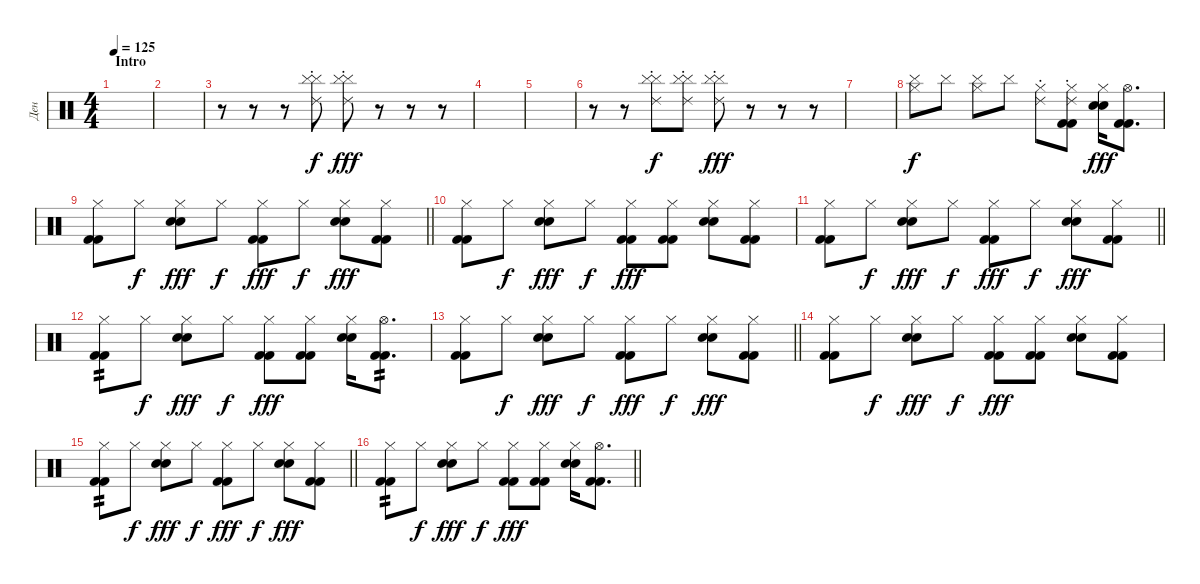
\track ("Ден" "Ден") {instrument percussion}
\staff {score}
\articulation defaults
\ts (4 4)
\section ("" "Intro")
\tempo 125
\clef neutral
\ks c
|
|
r.8 r.8 r.8 ("Cymbal (hit)" "Ride (choke) 2" "Cymbal (hit)").8 ("Cymbal (hit)" "Ride (choke) 2" "Cymbal (hit)").8{dy fff} r.8 r.8 r.8 |
|
|
r.8 r.8 ("Cymbal (hit)" "Ride (choke) 2" "Cymbal (hit)").8{dy f} ("Cymbal (hit)" "Ride (choke) 2" "Cymbal (hit)").8 ("Cymbal (hit)" "Ride (choke) 2" "Cymbal (hit)").8{dy fff} r.8 r.8 r.8 |
|
("Hi-Hat (closed)" "Cymbal (hit)").8{dy f} "Cymbal (hit)".8 ("Hi-Hat (closed)" "Cymbal (hit)").8 "Cymbal (hit)".8 ("Hi-Hat (closed)" "Ride (choke) 2").8 ("Hi-Hat (closed)" "Ride (choke) 2" "Kick (hit) 2" "Kick (hit) 2").8 ("Hi-Hat (closed)" "Electric Snare (hit)" "Electric Snare (hit)").16{dy fff} ("Hi-Hat (open)" "Kick (hit) 2" "Kick (hit) 2").8{d} |
\barLineRight lightlight
("Hi-Hat (closed)" "Kick (hit) 2" "Kick (hit) 2").8 "Hi-Hat (closed)".8{dy f} ("Hi-Hat (closed)" "Electric Snare (hit)" "Electric Snare (hit)").8{dy fff} "Hi-Hat (closed)".8{dy f} ("Hi-Hat (closed)" "Kick (hit) 2" "Kick (hit) 2").8{dy fff} "Hi-Hat (closed)".8{dy f} ("Hi-Hat (closed)" "Electric Snare (hit)" "Electric Snare (hit)").8{dy fff} ("Hi-Hat (closed)" "Kick (hit) 2" "Kick (hit) 2").8 |
("Hi-Hat (closed)" "Kick (hit) 2" "Kick (hit) 2").8 "Hi-Hat (closed)".8{dy f} ("Hi-Hat (closed)" "Electric Snare (hit)" "Electric Snare (hit)").8{dy fff} "Hi-Hat (closed)".8{dy f} ("Hi-Hat (closed)" "Kick (hit) 2" "Kick (hit) 2").8{dy fff} ("Hi-Hat (closed)" "Kick (hit) 2" "Kick (hit) 2").8 ("Hi-Hat (closed)" "Electric Snare (hit)" "Electric Snare (hit)").8 ("Hi-Hat (closed)" "Kick (hit) 2" "Kick (hit) 2").8 |
\barLineRight lightlight
("Hi-Hat (closed)" "Kick (hit) 2" "Kick (hit) 2").8 "Hi-Hat (closed)".8{dy f} ("Hi-Hat (closed)" "Electric Snare (hit)" "Electric Snare (hit)").8{dy fff} "Hi-Hat (closed)".8{dy f} ("Hi-Hat (closed)" "Kick (hit) 2" "Kick (hit) 2").8{dy fff} "Hi-Hat (closed)".8{dy f} ("Hi-Hat (closed)" "Electric Snare (hit)" "Electric Snare (hit)").8{dy fff} ("Hi-Hat (closed)" "Kick (hit) 2" "Kick (hit) 2").8 |
("Hi-Hat (closed)" "Kick (hit) 2" "Kick (hit) 2").8{tp 2} "Hi-Hat (closed)".8{dy f} ("Hi-Hat (closed)" "Electric Snare (hit)" "Electric Snare (hit)").8{dy fff} "Hi-Hat (closed)".8{dy f} ("Hi-Hat (closed)" "Kick (hit) 2" "Kick (hit) 2").8{dy fff} ("Hi-Hat (closed)" "Kick (hit) 2" "Kick (hit) 2").8 ("Hi-Hat (closed)" "Electric Snare (hit)" "Electric Snare (hit)").16 ("Hi-Hat (open)" "Kick (hit) 2" "Kick (hit) 2").8{d tp 2} |
\barLineRight lightlight
("Hi-Hat (closed)" "Kick (hit) 2" "Kick (hit) 2").8 "Hi-Hat (closed)".8{dy f} ("Hi-Hat (closed)" "Electric Snare (hit)" "Electric Snare (hit)").8{dy fff} "Hi-Hat (closed)".8{dy f} ("Hi-Hat (closed)" "Kick (hit) 2" "Kick (hit) 2").8{dy fff} "Hi-Hat (closed)".8{dy f} ("Hi-Hat (closed)" "Electric Snare (hit)" "Electric Snare (hit)").8{dy fff} ("Hi-Hat (closed)" "Kick (hit) 2" "Kick (hit) 2").8 |
("Hi-Hat (closed)" "Kick (hit) 2" "Kick (hit) 2").8 "Hi-Hat (closed)".8{dy f} ("Hi-Hat (closed)" "Electric Snare (hit)" "Electric Snare (hit)").8{dy fff} "Hi-Hat (closed)".8{dy f} ("Hi-Hat (closed)" "Kick (hit) 2" "Kick (hit) 2").8{dy fff} ("Hi-Hat (closed)" "Kick (hit) 2" "Kick (hit) 2").8 ("Hi-Hat (closed)" "Electric Snare (hit)" "Electric Snare (hit)").8 ("Hi-Hat (closed)" "Kick (hit) 2" "Kick (hit) 2").8 |
\barLineRight lightlight
("Hi-Hat (closed)" "Kick (hit) 2" "Kick (hit) 2").8{tp 2} "Hi-Hat (closed)".8{dy f} ("Hi-Hat (closed)" "Electric Snare (hit)" "Electric Snare (hit)").8{dy fff} "Hi-Hat (closed)".8{dy f} ("Hi-Hat (closed)" "Kick (hit) 2" "Kick (hit) 2").8{dy fff} "Hi-Hat (closed)".8{dy f} ("Hi-Hat (closed)" "Electric Snare (hit)" "Electric Snare (hit)").8{dy fff} ("Hi-Hat (closed)" "Kick (hit) 2" "Kick (hit) 2").8 |
\barLineRight lightlight
("Hi-Hat (closed)" "Kick (hit) 2" "Kick (hit) 2").8{tp 2} "Hi-Hat (closed)".8{dy f} ("Hi-Hat (closed)" "Electric Snare (hit)" "Electric Snare (hit)").8{dy fff} "Hi-Hat (closed)".8{dy f} ("Hi-Hat (closed)" "Kick (hit) 2" "Kick (hit) 2").8{dy fff} ("Hi-Hat (closed)" "Kick (hit) 2" "Kick (hit) 2").8 ("Hi-Hat (closed)" "Electric Snare (hit)" "Electric Snare (hit)").16 ("Hi-Hat (open)" "Kick (hit) 2" "Kick (hit) 2").8{d}
